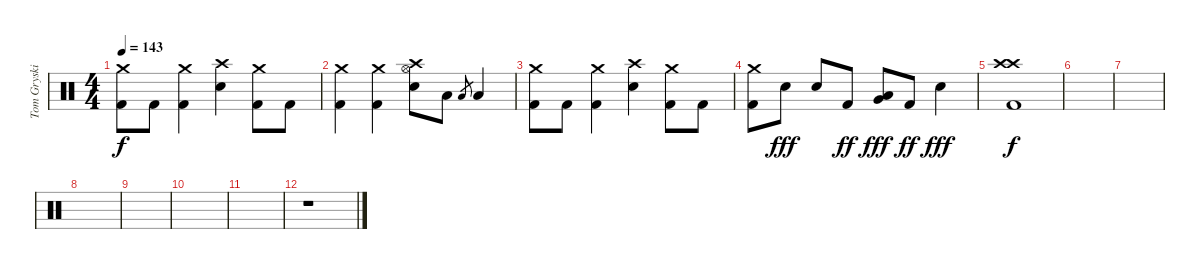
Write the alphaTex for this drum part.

\track ("Tom Gryskiewicz - Drums" "Tom Gryski") {instrument percussion}
\staff {score}
\articulation defaults
\ts (4 4)
\tempo 143
\clef neutral
\ks c
("Crash medium (hit)" "Kick (hit) 2").8{dy f} "Kick (hit) 2".8 ("Crash medium (hit)" "Kick (hit) 2").4 ("Crash high (hit)" "Electric Snare (hit)").4 ("Crash medium (hit)" "Kick (hit) 2").8 "Kick (hit) 2".8 |
("Crash medium (hit)" "Kick (hit) 2").4 ("Crash medium (hit)" "Kick (hit) 2").4 ("Crash high (hit)" "Hi-Hat (open)" "Electric Snare (hit)").8 "Low Tom (hit)".8 "Low Tom (hit)".8{gr} "Low Tom (hit)".4 |
("Crash medium (hit)" "Kick (hit) 2").8 "Kick (hit) 2".8 ("Crash medium (hit)" "Kick (hit) 2").4 ("Crash high (hit)" "Electric Snare (hit)").4 ("Crash medium (hit)" "Kick (hit) 2").8 "Kick (hit) 2".8 |
("Crash medium (hit)" "Kick (hit) 2").8 "Electric Snare (hit)".8{dy fff} "Electric Snare (hit)".8 "Kick (hit) 2".8{dy ff} ("Very Low Tom (hit)" "Low Tom (hit)").8{dy fff} "Kick (hit) 2".8{dy ff} "Electric Snare (hit)".4{dy fff} |
("Crash high (hit)" "Crash high (hit)" "Kick (hit) 2").1{dy f} |
|
|
|
|
|
|
r.1
